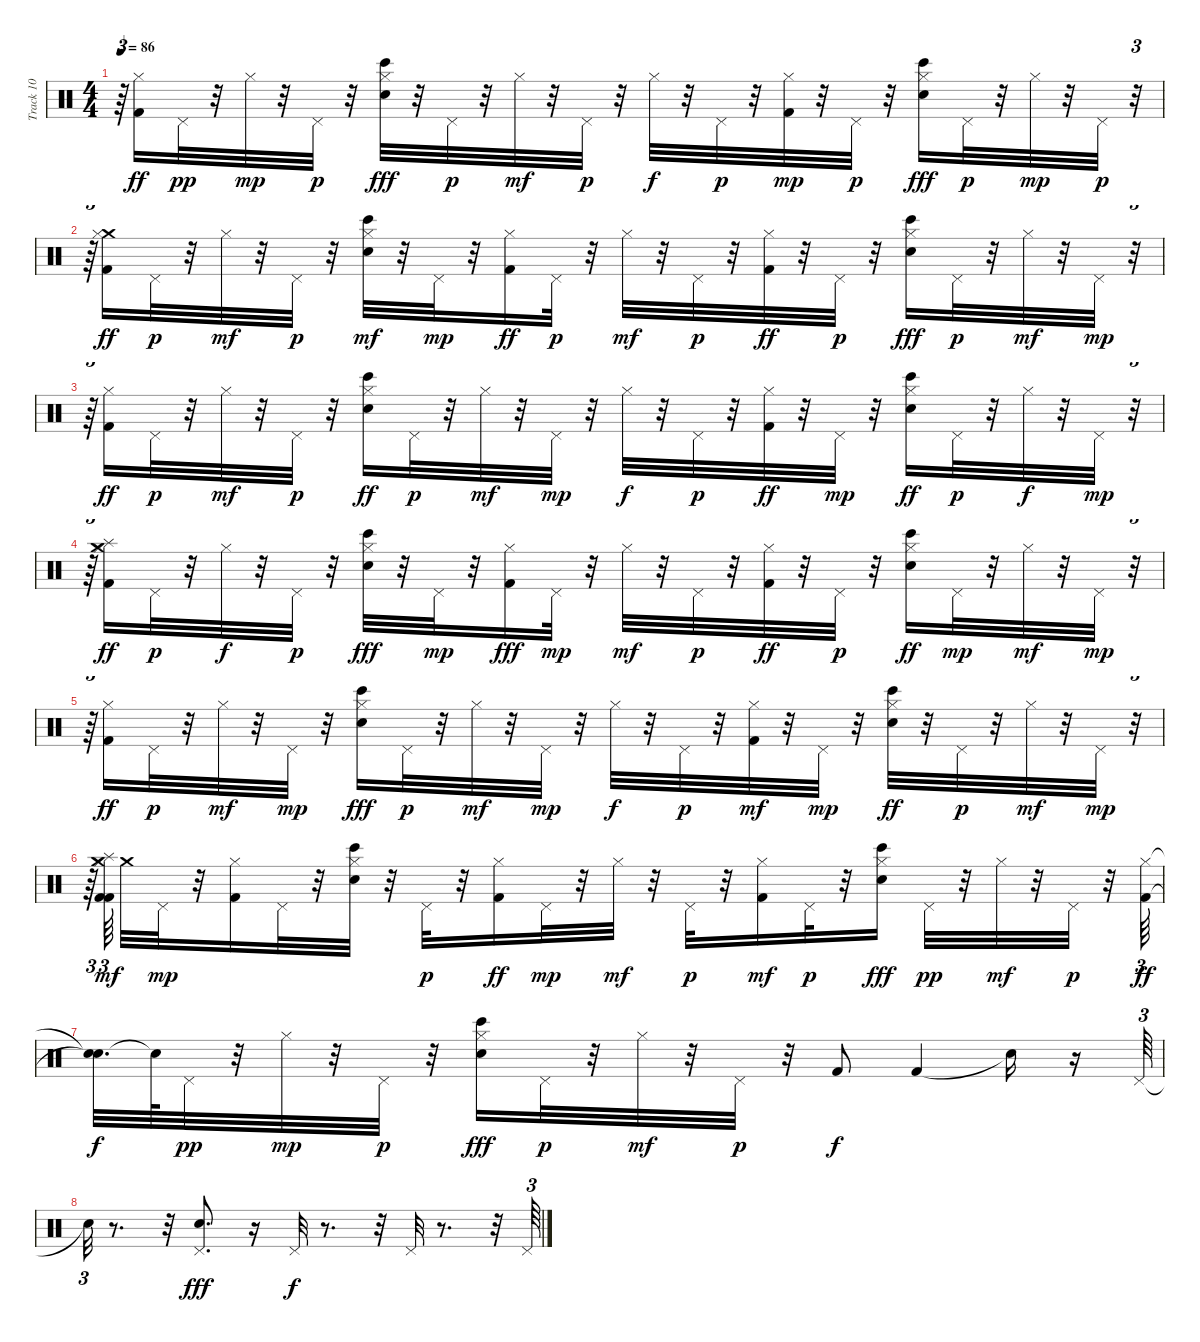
\track ("Track 10" "Track 10") {instrument percussion}
\staff {score}
\articulation defaults
\ts (4 4)
\tempo 86
\clef neutral
\ks c
r.64{tu (3 2) dy p} ("Hi-Hat (closed)" "Kick (hit) 2").16{dy ff} "Pedal Hi-Hat (hit)".32{dy pp} r.32 "Hi-Hat (closed)".32{dy mp} r.32 "Pedal Hi-Hat (hit)".32{dy p} r.32 ("Hi-Hat (closed)" "Electric Snare (hit)" "Bongo High (hit)").32{dy fff} r.32 "Pedal Hi-Hat (hit)".32{dy p} r.32 "Hi-Hat (closed)".32{dy mf} r.32 "Pedal Hi-Hat (hit)".32{dy p} r.32 "Hi-Hat (closed)".32{dy f} r.32 "Pedal Hi-Hat (hit)".32{dy p} r.32 ("Hi-Hat (closed)" "Kick (hit) 2").32{dy mp} r.32 "Pedal Hi-Hat (hit)".32{dy p} r.32 ("Hi-Hat (closed)" "Electric Snare (hit)" "Bongo High (hit)").16{dy fff} "Pedal Hi-Hat (hit)".32{dy p} r.32 "Hi-Hat (closed)".32{dy mp} r.32 "Pedal Hi-Hat (hit)".32{dy p} r.32{tu (3 2)} |
r.64{tu (3 2)} ("Crash medium (hit)" "Hi-Hat (closed)" "Kick (hit) 2").16{dy ff} "Pedal Hi-Hat (hit)".32{dy p} r.32 "Hi-Hat (closed)".32{dy mf} r.32 "Pedal Hi-Hat (hit)".32{dy p} r.32 ("Hi-Hat (closed)" "Electric Snare (hit)" "Bongo High (hit)").32{dy mf} r.32 "Pedal Hi-Hat (hit)".32{dy mp} r.32 ("Hi-Hat (closed)" "Kick (hit) 2").16{dy ff} "Pedal Hi-Hat (hit)".32{dy p} r.32 "Hi-Hat (closed)".32{dy mf} r.32 "Pedal Hi-Hat (hit)".32{dy p} r.32 ("Hi-Hat (closed)" "Kick (hit) 2").32{dy ff} r.32 "Pedal Hi-Hat (hit)".32{dy p} r.32 ("Hi-Hat (closed)" "Electric Snare (hit)" "Bongo High (hit)").16{dy fff} "Pedal Hi-Hat (hit)".32{dy p} r.32 "Hi-Hat (closed)".32{dy mf} r.32 "Pedal Hi-Hat (hit)".32{dy mp} r.32{tu (3 2)} |
r.64{tu (3 2)} ("Hi-Hat (closed)" "Kick (hit) 2").16{dy ff} "Pedal Hi-Hat (hit)".32{dy p} r.32 "Hi-Hat (closed)".32{dy mf} r.32 "Pedal Hi-Hat (hit)".32{dy p} r.32 ("Hi-Hat (closed)" "Electric Snare (hit)" "Bongo High (hit)").16{dy ff} "Pedal Hi-Hat (hit)".32{dy p} r.32 "Hi-Hat (closed)".32{dy mf} r.32 "Pedal Hi-Hat (hit)".32{dy mp} r.32 "Hi-Hat (closed)".32{dy f} r.32 "Pedal Hi-Hat (hit)".32{dy p} r.32 ("Hi-Hat (closed)" "Kick (hit) 2").32{dy ff} r.32 "Pedal Hi-Hat (hit)".32{dy mp} r.32 ("Hi-Hat (closed)" "Electric Snare (hit)" "Bongo High (hit)").16{dy ff} "Pedal Hi-Hat (hit)".32{dy p} r.32 "Hi-Hat (closed)".32{dy f} r.32 "Pedal Hi-Hat (hit)".32{dy mp} r.32{tu (3 2)} |
r.64{tu (3 2)} ("Splash (hit)" "Crash medium (hit)" "Hi-Hat (closed)" "Kick (hit) 2").16{dy ff} "Pedal Hi-Hat (hit)".32{dy p} r.32 "Hi-Hat (closed)".32{dy f} r.32 "Pedal Hi-Hat (hit)".32{dy p} r.32 ("Hi-Hat (closed)" "Bongo High (hit)" "Electric Snare (hit)").32{dy fff} r.32 "Pedal Hi-Hat (hit)".32{dy mp} r.32 ("Hi-Hat (closed)" "Kick (hit) 2").16{dy fff} "Pedal Hi-Hat (hit)".32{dy mp} r.32 "Hi-Hat (closed)".32{dy mf} r.32 "Pedal Hi-Hat (hit)".32{dy p} r.32 ("Hi-Hat (closed)" "Kick (hit) 2").32{dy ff} r.32 "Pedal Hi-Hat (hit)".32{dy p} r.32 ("Hi-Hat (closed)" "Bongo High (hit)" "Electric Snare (hit)").16{dy ff} "Pedal Hi-Hat (hit)".32{dy mp} r.32 "Hi-Hat (closed)".32{dy mf} r.32 "Pedal Hi-Hat (hit)".32{dy mp} r.32{tu (3 2)} |
r.64{tu (3 2)} ("Hi-Hat (closed)" "Kick (hit) 2").16{dy ff} "Pedal Hi-Hat (hit)".32{dy p} r.32 "Hi-Hat (closed)".32{dy mf} r.32 "Pedal Hi-Hat (hit)".32{dy mp} r.32 ("Hi-Hat (closed)" "Bongo High (hit)" "Electric Snare (hit)").16{dy fff} "Pedal Hi-Hat (hit)".32{dy p} r.32 "Hi-Hat (closed)".32{dy mf} r.32 "Pedal Hi-Hat (hit)".32{dy mp} r.32 "Hi-Hat (closed)".32{dy f} r.32 "Pedal Hi-Hat (hit)".32{dy p} r.32 ("Hi-Hat (closed)" "Kick (hit) 2").32{dy mf} r.32 "Pedal Hi-Hat (hit)".32{dy mp} r.32 ("Hi-Hat (closed)" "Electric Snare (hit)" "Bongo High (hit)").32{dy ff} r.32 "Pedal Hi-Hat (hit)".32{dy p} r.32 "Hi-Hat (closed)".32{dy mf} r.32 "Pedal Hi-Hat (hit)".32{dy mp} r.32{tu (3 2)} |
r.64{tu (3 2)} ("Splash (hit)" "Crash medium (hit)" "Hi-Hat (closed)" "Kick (hit) 2" "Kick (hit) 2").64{tu (3 2) dy mf beam splitsecondary} "Crash medium (hit)".32 "Pedal Hi-Hat (hit)".32{dy mp} r.32 ("Hi-Hat (closed)" "Kick (hit) 2").16 "Pedal Hi-Hat (hit)".32 r.32 ("Hi-Hat (closed)" "Electric Snare (hit)" "Bongo High (hit)").32 r.32 "Pedal Hi-Hat (hit)".32{dy p} r.32 ("Hi-Hat (closed)" "Kick (hit) 2").16{dy ff} "Pedal Hi-Hat (hit)".32{dy mp} r.32 "Hi-Hat (closed)".32{dy mf} r.32 "Pedal Hi-Hat (hit)".32{dy p} r.32 ("Hi-Hat (closed)" "Kick (hit) 2").16{dy mf} "Pedal Hi-Hat (hit)".32{dy p} r.32 ("Hi-Hat (closed)" "Electric Snare (hit)" "Bongo High (hit)").16{dy fff} "Pedal Hi-Hat (hit)".32{dy pp} r.32 "Hi-Hat (closed)".32{dy mf} r.32 "Pedal Hi-Hat (hit)".32{dy p} r.32 ("Hi-Hat (closed)" "Kick (hit) 2").64{tu (3 2) dy ff} |
("Snare (hit)"{t} "Snare (hit)"{t}).32{d dy f} "Snare (hit)"{t}.64 "Pedal Hi-Hat (hit)".32{dy pp} r.32 "Hi-Hat (closed)".32{dy mp} r.32 "Pedal Hi-Hat (hit)".32{dy p} r.32 ("Hi-Hat (closed)" "Electric Snare (hit)" "Bongo High (hit)").16{dy fff} "Pedal Hi-Hat (hit)".32{dy p} r.32 "Hi-Hat (closed)".32{dy mf} r.32 "Pedal Hi-Hat (hit)".32{dy p} r.32 "Kick (hit) 2".8{dy f} "Kick (hit) 2".4 "Snare (hit)"{t}.16 r.16 "Pedal Hi-Hat (hit)".64{tu (3 2)} |
"Snare (hit)"{t}.32{tu (3 2)} r.8{d} r.32 ("Pedal Hi-Hat (hit)" "Snare (hit)").8{d dy fff} r.16 "Pedal Hi-Hat (hit)".32{dy f} r.8{d} r.32 "Pedal Hi-Hat (hit)".32 r.8{d} r.32 "Pedal Hi-Hat (hit)".64{tu (3 2)}
